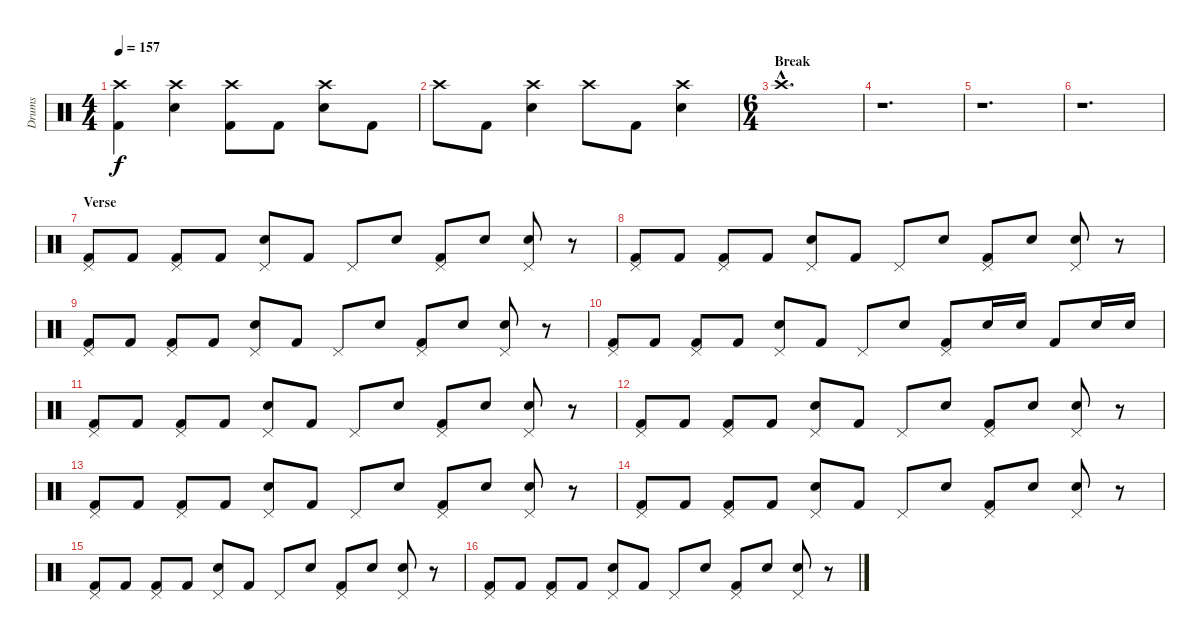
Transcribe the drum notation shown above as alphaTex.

\track ("Drums" "Drums") {instrument percussion}
\staff {score}
\articulation defaults
\ts (4 4)
\tempo 157
\clef neutral
\ks c
("Crash high (hit)" "Kick (hit) 2").4{dy f} ("Crash high (hit)" "Electric Snare (hit)").4 ("Crash high (hit)" "Kick (hit) 2").8 "Kick (hit) 2".8 ("Crash high (hit)" "Electric Snare (hit)").8 "Kick (hit) 2".8 |
"Crash high (hit)".8 "Kick (hit) 2".8 ("Crash high (hit)" "Electric Snare (hit)").4 "Crash high (hit)".8 "Kick (hit) 2".8 ("Crash high (hit)" "Electric Snare (hit)").4 |
\ts (6 4)
\section ("" "Break")
"Crash high (hit)"{hac}.1{d} |
r.1{d} |
r.1{d} |
r.1{d} |
\section ("" "Verse")
("Pedal Hi-Hat (hit)" "Kick (hit) 2").8 "Kick (hit) 2".8 ("Pedal Hi-Hat (hit)" "Kick (hit) 2").8 "Kick (hit) 2".8 ("Pedal Hi-Hat (hit)" "Electric Snare (hit)").8 "Kick (hit) 2".8 "Pedal Hi-Hat (hit)".8 "Electric Snare (hit)".8 ("Pedal Hi-Hat (hit)" "Kick (hit) 2").8 "Electric Snare (hit)".8 ("Pedal Hi-Hat (hit)" "Electric Snare (hit)").8 r.8 |
("Pedal Hi-Hat (hit)" "Kick (hit) 2").8 "Kick (hit) 2".8 ("Pedal Hi-Hat (hit)" "Kick (hit) 2").8 "Kick (hit) 2".8 ("Pedal Hi-Hat (hit)" "Electric Snare (hit)").8 "Kick (hit) 2".8 "Pedal Hi-Hat (hit)".8 "Electric Snare (hit)".8 ("Pedal Hi-Hat (hit)" "Kick (hit) 2").8 "Electric Snare (hit)".8 ("Pedal Hi-Hat (hit)" "Electric Snare (hit)").8 r.8 |
("Pedal Hi-Hat (hit)" "Kick (hit) 2").8 "Kick (hit) 2".8 ("Pedal Hi-Hat (hit)" "Kick (hit) 2").8 "Kick (hit) 2".8 ("Pedal Hi-Hat (hit)" "Electric Snare (hit)").8 "Kick (hit) 2".8 "Pedal Hi-Hat (hit)".8 "Electric Snare (hit)".8 ("Pedal Hi-Hat (hit)" "Kick (hit) 2").8 "Electric Snare (hit)".8 ("Pedal Hi-Hat (hit)" "Electric Snare (hit)").8 r.8 |
("Pedal Hi-Hat (hit)" "Kick (hit) 2").8 "Kick (hit) 2".8 ("Pedal Hi-Hat (hit)" "Kick (hit) 2").8 "Kick (hit) 2".8 ("Pedal Hi-Hat (hit)" "Electric Snare (hit)").8 "Kick (hit) 2".8 "Pedal Hi-Hat (hit)".8 "Electric Snare (hit)".8 ("Pedal Hi-Hat (hit)" "Kick (hit) 2").8 "Electric Snare (hit)".16 "Electric Snare (hit)".16 "Kick (hit) 2".8 "Electric Snare (hit)".16 "Electric Snare (hit)".16 |
("Pedal Hi-Hat (hit)" "Kick (hit) 2").8 "Kick (hit) 2".8 ("Pedal Hi-Hat (hit)" "Kick (hit) 2").8 "Kick (hit) 2".8 ("Pedal Hi-Hat (hit)" "Electric Snare (hit)").8 "Kick (hit) 2".8 "Pedal Hi-Hat (hit)".8 "Electric Snare (hit)".8 ("Pedal Hi-Hat (hit)" "Kick (hit) 2").8 "Electric Snare (hit)".8 ("Pedal Hi-Hat (hit)" "Electric Snare (hit)").8 r.8 |
("Pedal Hi-Hat (hit)" "Kick (hit) 2").8 "Kick (hit) 2".8 ("Pedal Hi-Hat (hit)" "Kick (hit) 2").8 "Kick (hit) 2".8 ("Pedal Hi-Hat (hit)" "Electric Snare (hit)").8 "Kick (hit) 2".8 "Pedal Hi-Hat (hit)".8 "Electric Snare (hit)".8 ("Pedal Hi-Hat (hit)" "Kick (hit) 2").8 "Electric Snare (hit)".8 ("Pedal Hi-Hat (hit)" "Electric Snare (hit)").8 r.8 |
("Pedal Hi-Hat (hit)" "Kick (hit) 2").8 "Kick (hit) 2".8 ("Pedal Hi-Hat (hit)" "Kick (hit) 2").8 "Kick (hit) 2".8 ("Pedal Hi-Hat (hit)" "Electric Snare (hit)").8 "Kick (hit) 2".8 "Pedal Hi-Hat (hit)".8 "Electric Snare (hit)".8 ("Pedal Hi-Hat (hit)" "Kick (hit) 2").8 "Electric Snare (hit)".8 ("Pedal Hi-Hat (hit)" "Electric Snare (hit)").8 r.8 |
("Pedal Hi-Hat (hit)" "Kick (hit) 2").8 "Kick (hit) 2".8 ("Pedal Hi-Hat (hit)" "Kick (hit) 2").8 "Kick (hit) 2".8 ("Pedal Hi-Hat (hit)" "Electric Snare (hit)").8 "Kick (hit) 2".8 "Pedal Hi-Hat (hit)".8 "Electric Snare (hit)".8 ("Pedal Hi-Hat (hit)" "Kick (hit) 2").8 "Electric Snare (hit)".8 ("Pedal Hi-Hat (hit)" "Electric Snare (hit)").8 r.8 |
("Pedal Hi-Hat (hit)" "Kick (hit) 2").8 "Kick (hit) 2".8 ("Pedal Hi-Hat (hit)" "Kick (hit) 2").8 "Kick (hit) 2".8 ("Pedal Hi-Hat (hit)" "Electric Snare (hit)").8 "Kick (hit) 2".8 "Pedal Hi-Hat (hit)".8 "Electric Snare (hit)".8 ("Pedal Hi-Hat (hit)" "Kick (hit) 2").8 "Electric Snare (hit)".8 ("Pedal Hi-Hat (hit)" "Electric Snare (hit)").8 r.8 |
("Pedal Hi-Hat (hit)" "Kick (hit) 2").8 "Kick (hit) 2".8 ("Pedal Hi-Hat (hit)" "Kick (hit) 2").8 "Kick (hit) 2".8 ("Pedal Hi-Hat (hit)" "Electric Snare (hit)").8 "Kick (hit) 2".8 "Pedal Hi-Hat (hit)".8 "Electric Snare (hit)".8 ("Pedal Hi-Hat (hit)" "Kick (hit) 2").8 "Electric Snare (hit)".8 ("Pedal Hi-Hat (hit)" "Electric Snare (hit)").8 r.8
